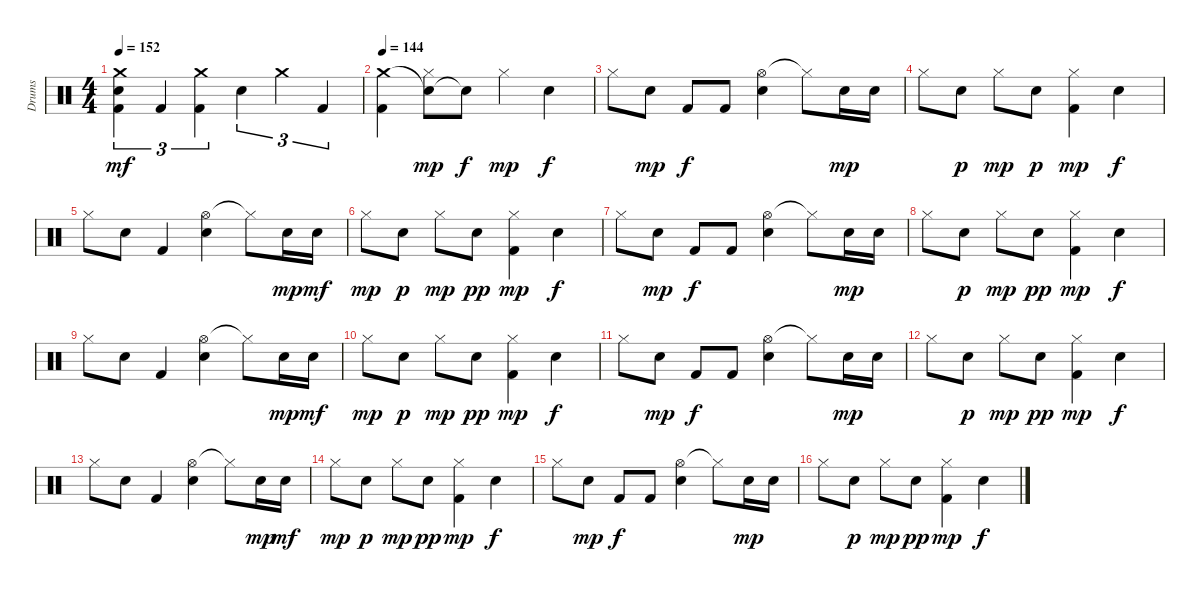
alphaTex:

\track ("Drums" "Drums") {instrument percussion}
\staff {score}
\articulation defaults
\ts (4 4)
\tempo 152
\clef neutral
\ks c
("Crash medium (hit)" "Snare (hit)"{t} "Kick (hit) 2").4{tu (3 2) dy mf} "Kick (hit) 2".4{tu (3 2)} ("Crash medium (hit)" "Kick (hit) 2").4{tu (3 2)} "Electric Snare (hit)".4{tu (3 2)} "Crash medium (hit)".4{tu (3 2)} "Kick (hit) 2".4{tu (3 2)} |
\tempo 144
("Crash medium (hit)" "Kick (hit) 2").4 ("Snare (hit)"{t} "Hi-Hat (closed)").8{dy mp} "Snare (hit)"{t}.8{dy f} "Hi-Hat (closed)".4{dy mp} "Electric Snare (hit)".4{dy f} |
"Hi-Hat (closed)".8 "Electric Snare (hit)".8{dy mp} "Kick (hit) 2".8{dy f} "Kick (hit) 2".8 ("Hi-Hat (open)" "Electric Snare (hit)").4 "Hi-Hat (closed)"{t}.8 "Electric Snare (hit)".16{dy mp} "Electric Snare (hit)".16 |
"Hi-Hat (closed)".8 "Electric Snare (hit)".8{dy p} "Hi-Hat (closed)".8{dy mp} "Electric Snare (hit)".8{dy p} ("Hi-Hat (closed)" "Kick (hit) 2").4{dy mp} "Electric Snare (hit)".4{dy f} |
"Hi-Hat (closed)".8 "Electric Snare (hit)".8 "Kick (hit) 2".4 ("Hi-Hat (open)" "Electric Snare (hit)").4 "Hi-Hat (closed)"{t}.8 "Electric Snare (hit)".16{dy mp} "Electric Snare (hit)".16{dy mf} |
"Hi-Hat (closed)".8{dy mp} "Electric Snare (hit)".8{dy p} "Hi-Hat (closed)".8{dy mp} "Electric Snare (hit)".8{dy pp} ("Hi-Hat (closed)" "Kick (hit) 2").4{dy mp} "Electric Snare (hit)".4{dy f} |
"Hi-Hat (closed)".8 "Electric Snare (hit)".8{dy mp} "Kick (hit) 2".8{dy f} "Kick (hit) 2".8 ("Hi-Hat (open)" "Electric Snare (hit)").4 "Hi-Hat (closed)"{t}.8 "Electric Snare (hit)".16{dy mp} "Electric Snare (hit)".16 |
"Hi-Hat (closed)".8 "Electric Snare (hit)".8{dy p} "Hi-Hat (closed)".8{dy mp} "Electric Snare (hit)".8{dy pp} ("Hi-Hat (closed)" "Kick (hit) 2").4{dy mp} "Electric Snare (hit)".4{dy f} |
"Hi-Hat (closed)".8 "Electric Snare (hit)".8 "Kick (hit) 2".4 ("Hi-Hat (open)" "Electric Snare (hit)").4 "Hi-Hat (closed)"{t}.8 "Electric Snare (hit)".16{dy mp} "Electric Snare (hit)".16{dy mf} |
"Hi-Hat (closed)".8{dy mp} "Electric Snare (hit)".8{dy p} "Hi-Hat (closed)".8{dy mp} "Electric Snare (hit)".8{dy pp} ("Hi-Hat (closed)" "Kick (hit) 2").4{dy mp} "Electric Snare (hit)".4{dy f} |
"Hi-Hat (closed)".8 "Electric Snare (hit)".8{dy mp} "Kick (hit) 2".8{dy f} "Kick (hit) 2".8 ("Hi-Hat (open)" "Electric Snare (hit)").4 "Hi-Hat (closed)"{t}.8 "Electric Snare (hit)".16{dy mp} "Electric Snare (hit)".16 |
"Hi-Hat (closed)".8 "Electric Snare (hit)".8{dy p} "Hi-Hat (closed)".8{dy mp} "Electric Snare (hit)".8{dy pp} ("Hi-Hat (closed)" "Kick (hit) 2").4{dy mp} "Electric Snare (hit)".4{dy f} |
"Hi-Hat (closed)".8 "Electric Snare (hit)".8 "Kick (hit) 2".4 ("Hi-Hat (open)" "Electric Snare (hit)").4 "Hi-Hat (closed)"{t}.8 "Electric Snare (hit)".16{dy mp} "Electric Snare (hit)".16{dy mf} |
"Hi-Hat (closed)".8{dy mp} "Electric Snare (hit)".8{dy p} "Hi-Hat (closed)".8{dy mp} "Electric Snare (hit)".8{dy pp} ("Hi-Hat (closed)" "Kick (hit) 2").4{dy mp} "Electric Snare (hit)".4{dy f} |
"Hi-Hat (closed)".8 "Electric Snare (hit)".8{dy mp} "Kick (hit) 2".8{dy f} "Kick (hit) 2".8 ("Hi-Hat (open)" "Electric Snare (hit)").4 "Hi-Hat (closed)"{t}.8 "Electric Snare (hit)".16{dy mp} "Electric Snare (hit)".16 |
"Hi-Hat (closed)".8 "Electric Snare (hit)".8{dy p} "Hi-Hat (closed)".8{dy mp} "Electric Snare (hit)".8{dy pp} ("Hi-Hat (closed)" "Kick (hit) 2").4{dy mp} "Electric Snare (hit)".4{dy f}
